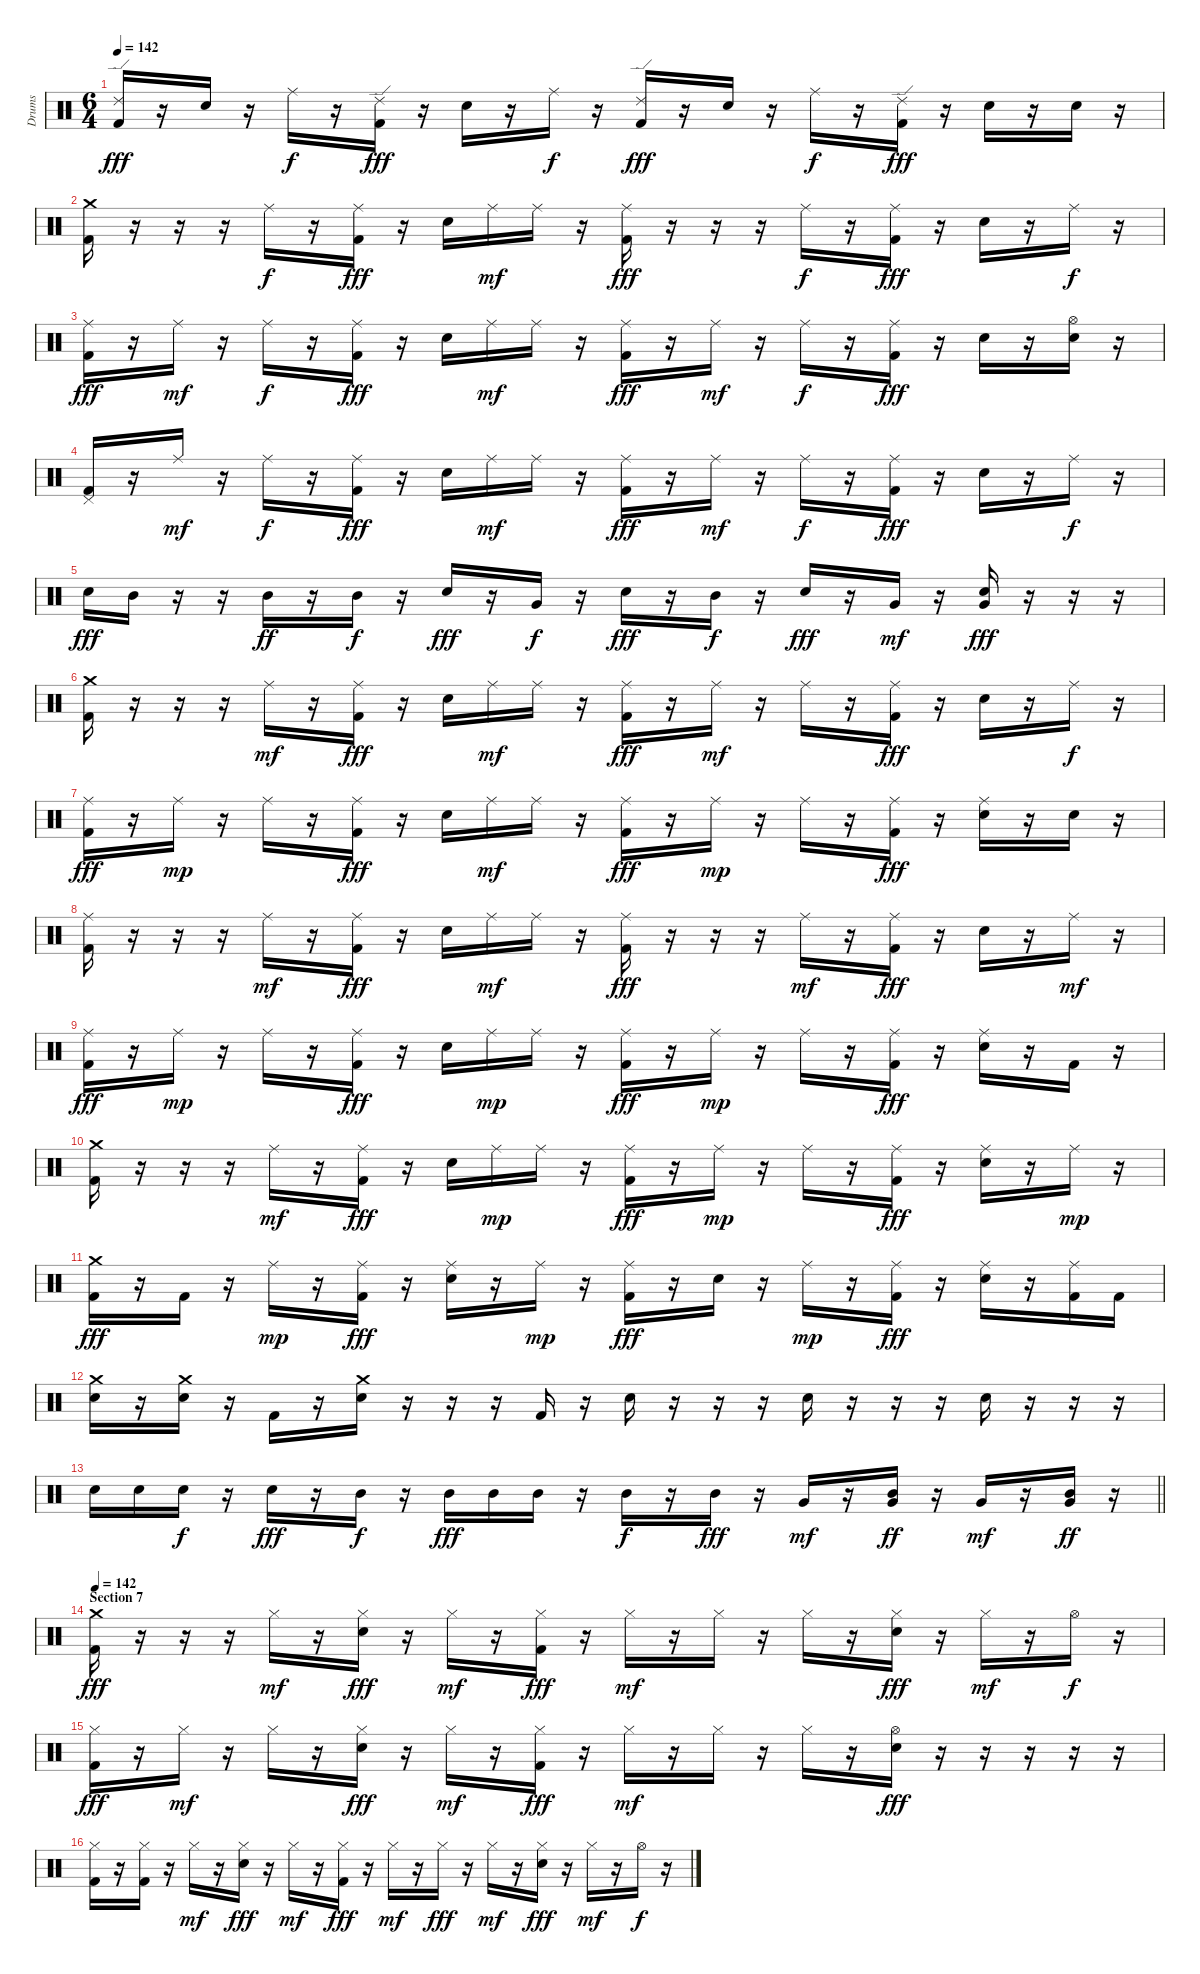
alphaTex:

\track ("Drums" "Drums") {instrument percussion}
\staff {score}
\articulation defaults
\ts (6 4)
\tempo 142
\clef neutral
\ks c
("Ride (edge) 2" "Kick (hit) 2").16{dy fff} r.16 "Electric Snare (hit)".16 r.16 "Ride (middle)".16{dy f} r.16 ("Ride (edge) 2" "Kick (hit) 2").16{dy fff} r.16 "Electric Snare (hit)".16 r.16 "Ride (middle)".16{dy f} r.16 ("Ride (edge) 2" "Kick (hit) 2").16{dy fff} r.16 "Electric Snare (hit)".16 r.16 "Ride (middle)".16{dy f} r.16 ("Ride (edge) 2" "Kick (hit) 2").16{dy fff} r.16 "Electric Snare (hit)".16 r.16 "Electric Snare (hit)".16 r.16 |
("Crash medium (hit)" "Kick (hit) 2").16 r.16 r.16 r.16 "Ride (middle)".16{dy f} r.16 ("Ride (middle)" "Kick (hit) 2").16{dy fff} r.16 "Electric Snare (hit)".16 "Ride (middle)".16{dy mf} "Ride (middle)".16 r.16 ("Ride (middle)" "Kick (hit) 2").16{dy fff} r.16 r.16 r.16 "Ride (middle)".16{dy f} r.16 ("Ride (middle)" "Kick (hit) 2").16{dy fff} r.16 "Electric Snare (hit)".16 r.16 "Ride (middle)".16{dy f} r.16 |
("Ride (middle)" "Kick (hit) 2").16{dy fff} r.16 "Ride (middle)".16{dy mf} r.16 "Ride (middle)".16{dy f} r.16 ("Ride (middle)" "Kick (hit) 2").16{dy fff} r.16 "Electric Snare (hit)".16 "Ride (middle)".16{dy mf} "Ride (middle)".16 r.16 ("Ride (middle)" "Kick (hit) 2").16{dy fff} r.16 "Ride (middle)".16{dy mf} r.16 "Ride (middle)".16{dy f} r.16 ("Ride (middle)" "Kick (hit) 2").16{dy fff} r.16 "Electric Snare (hit)".16 r.16 ("Hi-Hat (open)" "Electric Snare (hit)").16 r.16 |
("Pedal Hi-Hat (hit)" "Kick (hit) 2").16 r.16 "Ride (middle)".16{dy mf} r.16 "Ride (middle)".16{dy f} r.16 ("Ride (middle)" "Kick (hit) 2").16{dy fff} r.16 "Electric Snare (hit)".16 "Ride (middle)".16{dy mf} "Ride (middle)".16 r.16 ("Ride (middle)" "Kick (hit) 2").16{dy fff} r.16 "Ride (middle)".16{dy mf} r.16 "Ride (middle)".16{dy f} r.16 ("Ride (middle)" "Kick (hit) 2").16{dy fff} r.16 "Electric Snare (hit)".16 r.16 "Ride (middle)".16{dy f} r.16 |
"Electric Snare (hit)".16{dy fff} "Mid Tom (hit)".16 r.16 r.16 "Mid Tom (hit)".16{dy ff} r.16 "Mid Tom (hit)".16{dy f} r.16 "Electric Snare (hit)".16{dy fff} r.16 "Very Low Tom (hit)".16{dy f} r.16 "Electric Snare (hit)".16{dy fff} r.16 "Mid Tom (hit)".16{dy f} r.16 "Electric Snare (hit)".16{dy fff} r.16 "Very Low Tom (hit)".16{dy mf} r.16 ("Electric Snare (hit)" "Very Low Tom (hit)").16{dy fff} r.16 r.16 r.16 |
("Crash medium (hit)" "Kick (hit) 2").16 r.16 r.16 r.16 "Ride (middle)".16{dy mf} r.16 ("Ride (middle)" "Kick (hit) 2").16{dy fff} r.16 "Electric Snare (hit)".16 "Ride (middle)".16{dy mf} "Ride (middle)".16 r.16 ("Ride (middle)" "Kick (hit) 2").16{dy fff} r.16 "Ride (middle)".16{dy mf} r.16 "Ride (middle)".16 r.16 ("Ride (middle)" "Kick (hit) 2").16{dy fff} r.16 "Electric Snare (hit)".16 r.16 "Ride (middle)".16{dy f} r.16 |
("Ride (middle)" "Kick (hit) 2").16{dy fff} r.16 "Ride (middle)".16{dy mp} r.16 "Ride (middle)".16 r.16 ("Ride (middle)" "Kick (hit) 2").16{dy fff} r.16 "Electric Snare (hit)".16 "Ride (middle)".16{dy mf} "Ride (middle)".16 r.16 ("Ride (middle)" "Kick (hit) 2").16{dy fff} r.16 "Ride (middle)".16{dy mp} r.16 "Ride (middle)".16 r.16 ("Ride (middle)" "Kick (hit) 2").16{dy fff} r.16 ("Ride (middle)" "Electric Snare (hit)").16 r.16 "Electric Snare (hit)".16 r.16 |
("Ride (middle)" "Kick (hit) 2").16 r.16 r.16 r.16 "Ride (middle)".16{dy mf} r.16 ("Ride (middle)" "Kick (hit) 2").16{dy fff} r.16 "Electric Snare (hit)".16 "Ride (middle)".16{dy mf} "Ride (middle)".16 r.16 ("Ride (middle)" "Kick (hit) 2").16{dy fff} r.16 r.16 r.16 "Ride (middle)".16{dy mf} r.16 ("Ride (middle)" "Kick (hit) 2").16{dy fff} r.16 "Electric Snare (hit)".16 r.16 "Ride (middle)".16{dy mf} r.16 |
("Ride (middle)" "Kick (hit) 2").16{dy fff} r.16 "Ride (middle)".16{dy mp} r.16 "Ride (middle)".16 r.16 ("Ride (middle)" "Kick (hit) 2").16{dy fff} r.16 "Electric Snare (hit)".16 "Ride (middle)".16{dy mp} "Ride (middle)".16 r.16 ("Ride (middle)" "Kick (hit) 2").16{dy fff} r.16 "Ride (middle)".16{dy mp} r.16 "Ride (middle)".16 r.16 ("Ride (middle)" "Kick (hit) 2").16{dy fff} r.16 ("Ride (middle)" "Electric Snare (hit)").16 r.16 "Kick (hit) 2".16 r.16 |
("Crash medium (hit)" "Kick (hit) 2").16 r.16 r.16 r.16 "Ride (middle)".16{dy mf} r.16 ("Ride (middle)" "Kick (hit) 2").16{dy fff} r.16 "Electric Snare (hit)".16 "Ride (middle)".16{dy mp} "Ride (middle)".16 r.16 ("Ride (middle)" "Kick (hit) 2").16{dy fff} r.16 "Ride (middle)".16{dy mp} r.16 "Ride (middle)".16 r.16 ("Ride (middle)" "Kick (hit) 2").16{dy fff} r.16 ("Ride (middle)" "Electric Snare (hit)").16 r.16 "Ride (middle)".16{dy mp} r.16 |
("Crash medium (hit)" "Kick (hit) 2").16{dy fff} r.16 "Kick (hit) 2".16 r.16 "Ride (middle)".16{dy mp} r.16 ("Ride (middle)" "Kick (hit) 2").16{dy fff} r.16 ("Ride (middle)" "Electric Snare (hit)").16 r.16 "Ride (middle)".16{dy mp} r.16 ("Ride (middle)" "Kick (hit) 2").16{dy fff} r.16 "Electric Snare (hit)".16 r.16 "Ride (middle)".16{dy mp} r.16 ("Ride (middle)" "Kick (hit) 2").16{dy fff} r.16 ("Ride (middle)" "Electric Snare (hit)").16 r.16 ("Ride (middle)" "Kick (hit) 2").16 "Kick (hit) 2".16 |
("Crash medium (hit)" "Electric Snare (hit)").16 r.16 ("Crash medium (hit)" "Electric Snare (hit)").16 r.16 "Kick (hit) 2".16 r.16 ("Crash medium (hit)" "Electric Snare (hit)").16 r.16 r.16 r.16 "Kick (hit) 2".16 r.16 "Electric Snare (hit)".16 r.16 r.16 r.16 "Electric Snare (hit)".16 r.16 r.16 r.16 "Electric Snare (hit)".16 r.16 r.16 r.16 |
\barLineRight lightlight "Electric Snare (hit)".16 "Electric Snare (hit)".16 "Electric Snare (hit)".16{dy f}
r.16 "Electric Snare (hit)".16{dy fff} r.16 "Mid Tom (hit)".16{dy f} r.16 "Mid Tom (hit)".16{dy fff} "Mid Tom (hit)".16 "Mid Tom (hit)".16 r.16 "Mid Tom (hit)".16{dy f} r.16 "Mid Tom (hit)".16{dy fff} r.16 "Very Low Tom (hit)".16{dy mf} r.16 ("Mid Tom (hit)" "Very Low Tom (hit)").16{dy ff} r.16 "Very Low Tom (hit)".16{dy mf} r.16 ("Mid Tom (hit)" "Very Low Tom (hit)").16{dy ff} r.16 |
\section ("" "Section 7")
\tempo 142
("Crash medium (hit)" "Kick (hit) 2").16{dy fff} r.16 r.16 r.16 "Hi-Hat (closed)".16{dy mf} r.16 ("Hi-Hat (closed)" "Electric Snare (hit)").16{dy fff} r.16 "Hi-Hat (closed)".16{dy mf} r.16 ("Hi-Hat (closed)" "Kick (hit) 2").16{dy fff} r.16 "Hi-Hat (closed)".16{dy mf} r.16 "Hi-Hat (closed)".16 r.16 "Hi-Hat (closed)".16 r.16 ("Hi-Hat (closed)" "Electric Snare (hit)").16{dy fff} r.16 "Hi-Hat (closed)".16{dy mf} r.16 "Hi-Hat (open)".16{dy f} r.16 |
("Hi-Hat (closed)" "Kick (hit) 2").16{dy fff} r.16 "Hi-Hat (closed)".16{dy mf} r.16 "Hi-Hat (closed)".16 r.16 ("Hi-Hat (closed)" "Electric Snare (hit)").16{dy fff} r.16 "Hi-Hat (closed)".16{dy mf} r.16 ("Hi-Hat (closed)" "Kick (hit) 2").16{dy fff} r.16 "Hi-Hat (closed)".16{dy mf} r.16 "Hi-Hat (closed)".16 r.16 "Hi-Hat (closed)".16 r.16 ("Hi-Hat (open)" "Electric Snare (hit)").16{dy fff} r.16 r.16 r.16 r.16 r.16 |
("Hi-Hat (closed)" "Kick (hit) 2").16 r.16 ("Hi-Hat (closed)" "Kick (hit) 2").16 r.16 "Hi-Hat (closed)".16{dy mf} r.16 ("Hi-Hat (closed)" "Electric Snare (hit)").16{dy fff} r.16 "Hi-Hat (closed)".16{dy mf} r.16 ("Hi-Hat (closed)" "Kick (hit) 2").16{dy fff} r.16 "Hi-Hat (closed)".16{dy mf} r.16 "Hi-Hat (closed)".16{dy fff} r.16 "Hi-Hat (closed)".16{dy mf} r.16 ("Hi-Hat (closed)" "Electric Snare (hit)").16{dy fff} r.16 "Hi-Hat (closed)".16{dy mf} r.16 "Hi-Hat (open)".16{dy f} r.16
